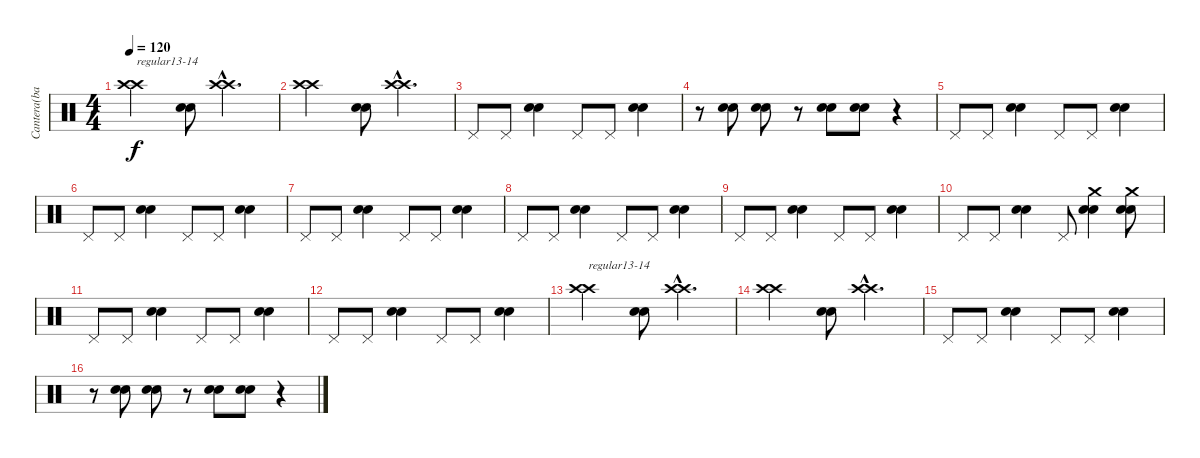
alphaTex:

\track ("Cantera(bateria)" "Cantera(ba") {instrument percussion}
\staff {score}
\articulation defaults
\ts (4 4)
\tempo 120
\clef neutral
\ks c
("Crash high (hit)" "Crash high (hit)").2{txt "regular13-14" dy f} ("Electric Snare (hit)" "Electric Snare (hit)").8 ("Crash high (hit)"{hac} "Crash high (hit)"{hac}).4{d} |
("Crash high (hit)" "Crash high (hit)").2 ("Electric Snare (hit)" "Electric Snare (hit)").8 ("Crash high (hit)"{hac} "Crash high (hit)"{hac}).4{d} |
"Pedal Hi-Hat (hit)".8 "Pedal Hi-Hat (hit)".8 ("Electric Snare (hit)" "Electric Snare (hit)").4 "Pedal Hi-Hat (hit)".8 "Pedal Hi-Hat (hit)".8 ("Electric Snare (hit)" "Electric Snare (hit)").4 |
r.8 ("Electric Snare (hit)" "Electric Snare (hit)").8 ("Electric Snare (hit)" "Electric Snare (hit)").8 r.8 ("Electric Snare (hit)" "Electric Snare (hit)").8 ("Electric Snare (hit)" "Electric Snare (hit)").8 r.4 |
"Pedal Hi-Hat (hit)".8 "Pedal Hi-Hat (hit)".8 ("Electric Snare (hit)" "Electric Snare (hit)").4 "Pedal Hi-Hat (hit)".8 "Pedal Hi-Hat (hit)".8 ("Electric Snare (hit)" "Electric Snare (hit)").4 |
"Pedal Hi-Hat (hit)".8 "Pedal Hi-Hat (hit)".8 ("Electric Snare (hit)" "Electric Snare (hit)").4 "Pedal Hi-Hat (hit)".8 "Pedal Hi-Hat (hit)".8 ("Electric Snare (hit)" "Electric Snare (hit)").4 |
"Pedal Hi-Hat (hit)".8 "Pedal Hi-Hat (hit)".8 ("Electric Snare (hit)" "Electric Snare (hit)").4 "Pedal Hi-Hat (hit)".8 "Pedal Hi-Hat (hit)".8 ("Electric Snare (hit)" "Electric Snare (hit)").4 |
"Pedal Hi-Hat (hit)".8 "Pedal Hi-Hat (hit)".8 ("Electric Snare (hit)" "Electric Snare (hit)").4 "Pedal Hi-Hat (hit)".8 "Pedal Hi-Hat (hit)".8 ("Electric Snare (hit)" "Electric Snare (hit)").4 |
"Pedal Hi-Hat (hit)".8 "Pedal Hi-Hat (hit)".8 ("Electric Snare (hit)" "Electric Snare (hit)").4 "Pedal Hi-Hat (hit)".8 "Pedal Hi-Hat (hit)".8 ("Electric Snare (hit)" "Electric Snare (hit)").4 |
"Pedal Hi-Hat (hit)".8 "Pedal Hi-Hat (hit)".8 ("Electric Snare (hit)" "Electric Snare (hit)").4 "Pedal Hi-Hat (hit)".8 ("Electric Snare (hit)" "Electric Snare (hit)" "Crash medium (hit)").4 ("Electric Snare (hit)" "Electric Snare (hit)" "Crash medium (hit)").8 |
"Pedal Hi-Hat (hit)".8 "Pedal Hi-Hat (hit)".8 ("Electric Snare (hit)" "Electric Snare (hit)").4 "Pedal Hi-Hat (hit)".8 "Pedal Hi-Hat (hit)".8 ("Electric Snare (hit)" "Electric Snare (hit)").4 |
"Pedal Hi-Hat (hit)".8 "Pedal Hi-Hat (hit)".8 ("Electric Snare (hit)" "Electric Snare (hit)").4 "Pedal Hi-Hat (hit)".8 "Pedal Hi-Hat (hit)".8 ("Electric Snare (hit)" "Electric Snare (hit)").4 |
("Crash high (hit)" "Crash high (hit)").2{txt "regular13-14"} ("Electric Snare (hit)" "Electric Snare (hit)").8 ("Crash high (hit)"{hac} "Crash high (hit)"{hac}).4{d} |
("Crash high (hit)" "Crash high (hit)").2 ("Electric Snare (hit)" "Electric Snare (hit)").8 ("Crash high (hit)"{hac} "Crash high (hit)"{hac}).4{d} |
"Pedal Hi-Hat (hit)".8 "Pedal Hi-Hat (hit)".8 ("Electric Snare (hit)" "Electric Snare (hit)").4 "Pedal Hi-Hat (hit)".8 "Pedal Hi-Hat (hit)".8 ("Electric Snare (hit)" "Electric Snare (hit)").4 |
r.8 ("Electric Snare (hit)" "Electric Snare (hit)").8 ("Electric Snare (hit)" "Electric Snare (hit)").8 r.8 ("Electric Snare (hit)" "Electric Snare (hit)").8 ("Electric Snare (hit)" "Electric Snare (hit)").8 r.4
